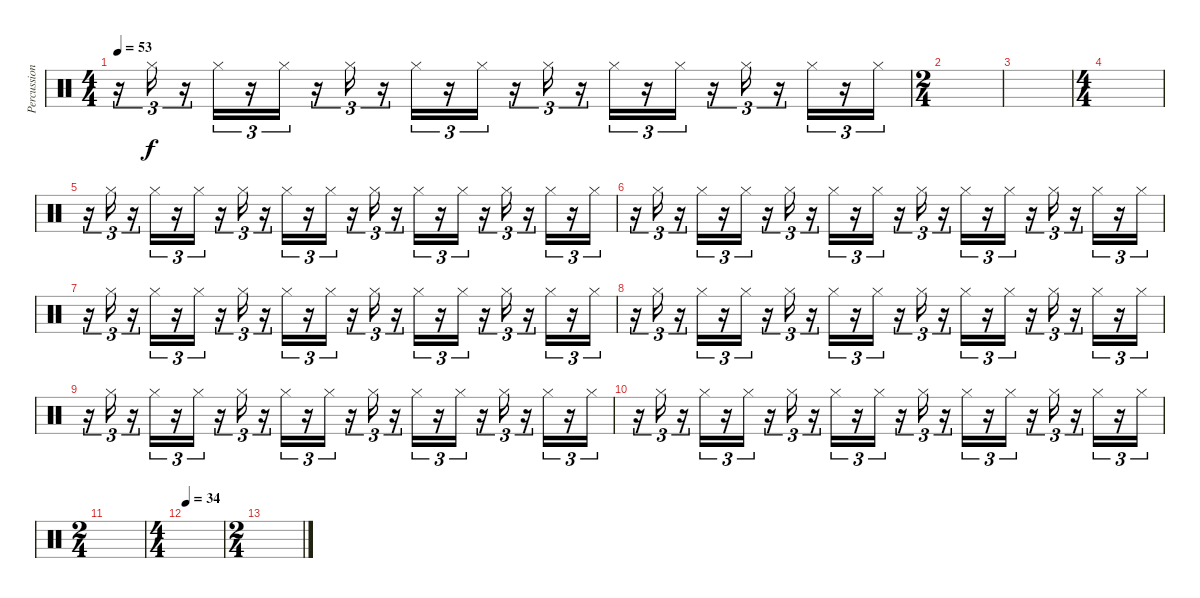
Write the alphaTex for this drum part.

\track ("Percussion" "Percussion") {instrument percussion}
\staff {score}
\articulation defaults
\ts (4 4)
\tempo 53
\clef neutral
\ks c
r.16{tu (3 2) dy f volume 6} "Hi-Hat (closed)".16{tu (3 2)} r.16{tu (3 2)} "Hi-Hat (closed)".16{tu (3 2)} r.16{tu (3 2)} "Hi-Hat (closed)".16{tu (3 2)} r.16{tu (3 2)} "Hi-Hat (closed)".16{tu (3 2)} r.16{tu (3 2)} "Hi-Hat (closed)".16{tu (3 2)} r.16{tu (3 2)} "Hi-Hat (closed)".16{tu (3 2)} r.16{tu (3 2)} "Hi-Hat (closed)".16{tu (3 2)} r.16{tu (3 2)} "Hi-Hat (closed)".16{tu (3 2)} r.16{tu (3 2)} "Hi-Hat (closed)".16{tu (3 2)} r.16{tu (3 2)} "Hi-Hat (closed)".16{tu (3 2)} r.16{tu (3 2)} "Hi-Hat (closed)".16{tu (3 2)} r.16{tu (3 2)} "Hi-Hat (closed)".16{tu (3 2)} |
\ts (2 4)
|
|
\ts (4 4)
|
r.16{tu (3 2) volume 6} "Hi-Hat (closed)".16{tu (3 2)} r.16{tu (3 2)} "Hi-Hat (closed)".16{tu (3 2)} r.16{tu (3 2)} "Hi-Hat (closed)".16{tu (3 2)} r.16{tu (3 2)} "Hi-Hat (closed)".16{tu (3 2)} r.16{tu (3 2)} "Hi-Hat (closed)".16{tu (3 2)} r.16{tu (3 2)} "Hi-Hat (closed)".16{tu (3 2)} r.16{tu (3 2)} "Hi-Hat (closed)".16{tu (3 2)} r.16{tu (3 2)} "Hi-Hat (closed)".16{tu (3 2)} r.16{tu (3 2)} "Hi-Hat (closed)".16{tu (3 2)} r.16{tu (3 2)} "Hi-Hat (closed)".16{tu (3 2)} r.16{tu (3 2)} "Hi-Hat (closed)".16{tu (3 2)} r.16{tu (3 2)} "Hi-Hat (closed)".16{tu (3 2)} |
r.16{tu (3 2) volume 6} "Hi-Hat (closed)".16{tu (3 2)} r.16{tu (3 2)} "Hi-Hat (closed)".16{tu (3 2)} r.16{tu (3 2)} "Hi-Hat (closed)".16{tu (3 2)} r.16{tu (3 2)} "Hi-Hat (closed)".16{tu (3 2)} r.16{tu (3 2)} "Hi-Hat (closed)".16{tu (3 2)} r.16{tu (3 2)} "Hi-Hat (closed)".16{tu (3 2)} r.16{tu (3 2)} "Hi-Hat (closed)".16{tu (3 2)} r.16{tu (3 2)} "Hi-Hat (closed)".16{tu (3 2)} r.16{tu (3 2)} "Hi-Hat (closed)".16{tu (3 2)} r.16{tu (3 2)} "Hi-Hat (closed)".16{tu (3 2)} r.16{tu (3 2)} "Hi-Hat (closed)".16{tu (3 2)} r.16{tu (3 2)} "Hi-Hat (closed)".16{tu (3 2)} |
r.16{tu (3 2) volume 6} "Hi-Hat (closed)".16{tu (3 2)} r.16{tu (3 2)} "Hi-Hat (closed)".16{tu (3 2)} r.16{tu (3 2)} "Hi-Hat (closed)".16{tu (3 2)} r.16{tu (3 2)} "Hi-Hat (closed)".16{tu (3 2)} r.16{tu (3 2)} "Hi-Hat (closed)".16{tu (3 2)} r.16{tu (3 2)} "Hi-Hat (closed)".16{tu (3 2)} r.16{tu (3 2)} "Hi-Hat (closed)".16{tu (3 2)} r.16{tu (3 2)} "Hi-Hat (closed)".16{tu (3 2)} r.16{tu (3 2)} "Hi-Hat (closed)".16{tu (3 2)} r.16{tu (3 2)} "Hi-Hat (closed)".16{tu (3 2)} r.16{tu (3 2)} "Hi-Hat (closed)".16{tu (3 2)} r.16{tu (3 2)} "Hi-Hat (closed)".16{tu (3 2)} |
r.16{tu (3 2) volume 6} "Hi-Hat (closed)".16{tu (3 2)} r.16{tu (3 2)} "Hi-Hat (closed)".16{tu (3 2)} r.16{tu (3 2)} "Hi-Hat (closed)".16{tu (3 2)} r.16{tu (3 2)} "Hi-Hat (closed)".16{tu (3 2)} r.16{tu (3 2)} "Hi-Hat (closed)".16{tu (3 2)} r.16{tu (3 2)} "Hi-Hat (closed)".16{tu (3 2)} r.16{tu (3 2)} "Hi-Hat (closed)".16{tu (3 2)} r.16{tu (3 2)} "Hi-Hat (closed)".16{tu (3 2)} r.16{tu (3 2)} "Hi-Hat (closed)".16{tu (3 2)} r.16{tu (3 2)} "Hi-Hat (closed)".16{tu (3 2)} r.16{tu (3 2)} "Hi-Hat (closed)".16{tu (3 2)} r.16{tu (3 2)} "Hi-Hat (closed)".16{tu (3 2)} |
r.16{tu (3 2) volume 6} "Hi-Hat (closed)".16{tu (3 2)} r.16{tu (3 2)} "Hi-Hat (closed)".16{tu (3 2)} r.16{tu (3 2)} "Hi-Hat (closed)".16{tu (3 2)} r.16{tu (3 2)} "Hi-Hat (closed)".16{tu (3 2)} r.16{tu (3 2)} "Hi-Hat (closed)".16{tu (3 2)} r.16{tu (3 2)} "Hi-Hat (closed)".16{tu (3 2)} r.16{tu (3 2)} "Hi-Hat (closed)".16{tu (3 2)} r.16{tu (3 2)} "Hi-Hat (closed)".16{tu (3 2)} r.16{tu (3 2)} "Hi-Hat (closed)".16{tu (3 2)} r.16{tu (3 2)} "Hi-Hat (closed)".16{tu (3 2)} r.16{tu (3 2)} "Hi-Hat (closed)".16{tu (3 2)} r.16{tu (3 2)} "Hi-Hat (closed)".16{tu (3 2)} |
r.16{tu (3 2) volume 6} "Hi-Hat (closed)".16{tu (3 2)} r.16{tu (3 2)} "Hi-Hat (closed)".16{tu (3 2)} r.16{tu (3 2)} "Hi-Hat (closed)".16{tu (3 2)} r.16{tu (3 2)} "Hi-Hat (closed)".16{tu (3 2)} r.16{tu (3 2)} "Hi-Hat (closed)".16{tu (3 2)} r.16{tu (3 2)} "Hi-Hat (closed)".16{tu (3 2)} r.16{tu (3 2)} "Hi-Hat (closed)".16{tu (3 2)} r.16{tu (3 2)} "Hi-Hat (closed)".16{tu (3 2)} r.16{tu (3 2)} "Hi-Hat (closed)".16{tu (3 2)} r.16{tu (3 2)} "Hi-Hat (closed)".16{tu (3 2)} r.16{tu (3 2)} "Hi-Hat (closed)".16{tu (3 2)} r.16{tu (3 2)} "Hi-Hat (closed)".16{tu (3 2)} |
\ts (2 4)
|
\ts (4 4)
\tempo 34
|
\ts (2 4)
